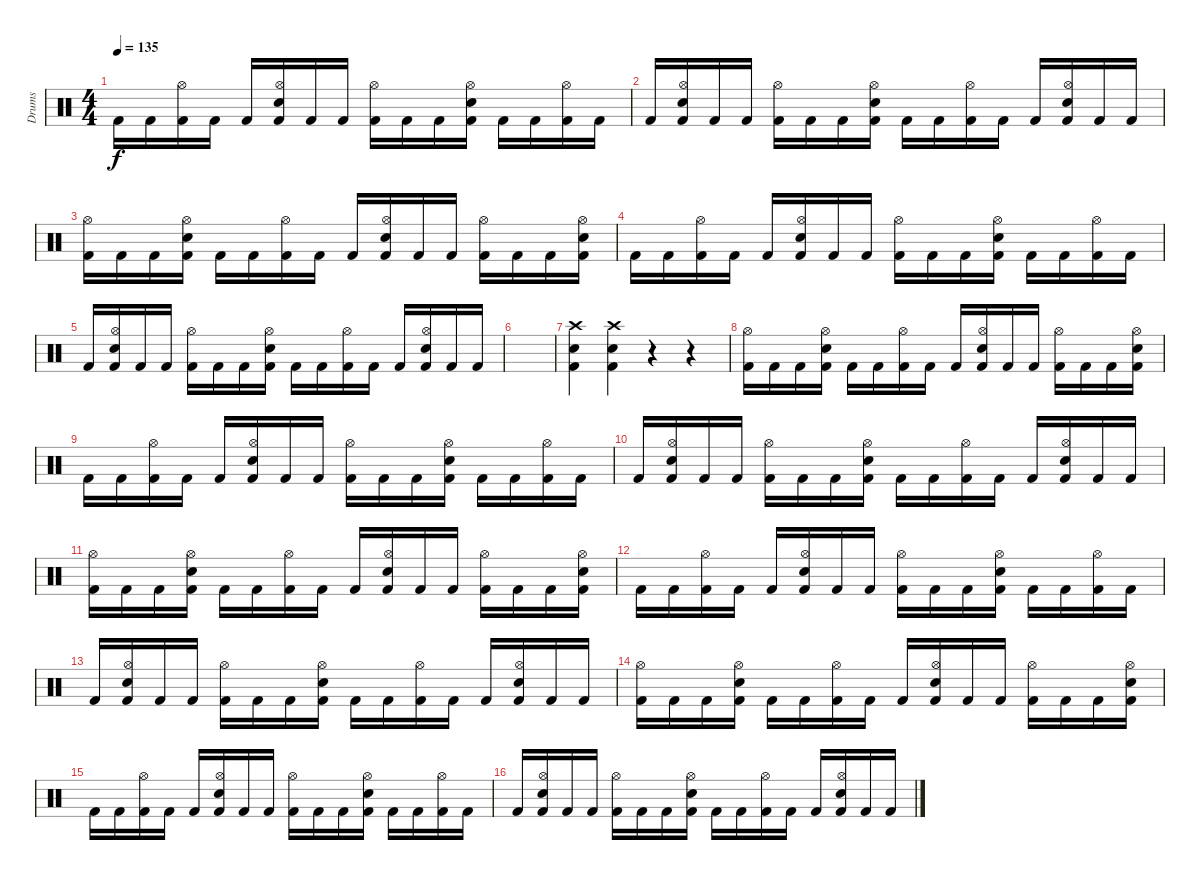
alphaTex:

\track ("Drums" "Drums") {instrument percussion}
\staff {score}
\articulation defaults
\ts (4 4)
\tempo 135
\clef neutral
\ks c "Kick (hit) 2".16{dy f} "Kick (hit) 2".16
("Kick (hit) 2" "Hi-Hat (open)").16 "Kick (hit) 2".16 "Kick (hit) 2".16 ("Kick (hit) 2" "Electric Snare (hit)" "Hi-Hat (open)").16 "Kick (hit) 2".16 "Kick (hit) 2".16 ("Kick (hit) 2" "Hi-Hat (open)").16 "Kick (hit) 2".16 "Kick (hit) 2".16 ("Kick (hit) 2" "Electric Snare (hit)" "Hi-Hat (open)").16 "Kick (hit) 2".16 "Kick (hit) 2".16 ("Kick (hit) 2" "Hi-Hat (open)").16 "Kick (hit) 2".16 |
"Kick (hit) 2".16 ("Kick (hit) 2" "Electric Snare (hit)" "Hi-Hat (open)").16 "Kick (hit) 2".16 "Kick (hit) 2".16 ("Kick (hit) 2" "Hi-Hat (open)").16 "Kick (hit) 2".16 "Kick (hit) 2".16 ("Kick (hit) 2" "Electric Snare (hit)" "Hi-Hat (open)").16 "Kick (hit) 2".16 "Kick (hit) 2".16 ("Kick (hit) 2" "Hi-Hat (open)").16 "Kick (hit) 2".16 "Kick (hit) 2".16 ("Kick (hit) 2" "Electric Snare (hit)" "Hi-Hat (open)").16 "Kick (hit) 2".16 "Kick (hit) 2".16 |
("Kick (hit) 2" "Hi-Hat (open)").16 "Kick (hit) 2".16 "Kick (hit) 2".16 ("Kick (hit) 2" "Electric Snare (hit)" "Hi-Hat (open)").16 "Kick (hit) 2".16 "Kick (hit) 2".16 ("Kick (hit) 2" "Hi-Hat (open)").16 "Kick (hit) 2".16 "Kick (hit) 2".16 ("Kick (hit) 2" "Electric Snare (hit)" "Hi-Hat (open)").16 "Kick (hit) 2".16 "Kick (hit) 2".16 ("Kick (hit) 2" "Hi-Hat (open)").16 "Kick (hit) 2".16 "Kick (hit) 2".16 ("Kick (hit) 2" "Hi-Hat (open)" "Electric Snare (hit)").16 |
"Kick (hit) 2".16 "Kick (hit) 2".16 ("Kick (hit) 2" "Hi-Hat (open)").16 "Kick (hit) 2".16 "Kick (hit) 2".16 ("Kick (hit) 2" "Electric Snare (hit)" "Hi-Hat (open)").16 "Kick (hit) 2".16 "Kick (hit) 2".16 ("Kick (hit) 2" "Hi-Hat (open)").16 "Kick (hit) 2".16 "Kick (hit) 2".16 ("Kick (hit) 2" "Electric Snare (hit)" "Hi-Hat (open)").16 "Kick (hit) 2".16 "Kick (hit) 2".16 ("Kick (hit) 2" "Hi-Hat (open)").16 "Kick (hit) 2".16 |
"Kick (hit) 2".16 ("Kick (hit) 2" "Electric Snare (hit)" "Hi-Hat (open)").16 "Kick (hit) 2".16 "Kick (hit) 2".16 ("Kick (hit) 2" "Hi-Hat (open)").16 "Kick (hit) 2".16 "Kick (hit) 2".16 ("Kick (hit) 2" "Electric Snare (hit)" "Hi-Hat (open)").16 "Kick (hit) 2".16 "Kick (hit) 2".16 ("Kick (hit) 2" "Hi-Hat (open)").16 "Kick (hit) 2".16 "Kick (hit) 2".16 ("Kick (hit) 2" "Electric Snare (hit)" "Hi-Hat (open)").16 "Kick (hit) 2".16 "Kick (hit) 2".16 |
|
("Crash high (hit)" "Electric Snare (hit)" "Kick (hit) 2").4 ("Crash high (hit)" "Electric Snare (hit)" "Kick (hit) 2").4 r.4 r.4 |
("Kick (hit) 2" "Hi-Hat (open)").16 "Kick (hit) 2".16 "Kick (hit) 2".16 ("Kick (hit) 2" "Electric Snare (hit)" "Hi-Hat (open)").16 "Kick (hit) 2".16 "Kick (hit) 2".16 ("Kick (hit) 2" "Hi-Hat (open)").16 "Kick (hit) 2".16 "Kick (hit) 2".16 ("Kick (hit) 2" "Electric Snare (hit)" "Hi-Hat (open)").16 "Kick (hit) 2".16 "Kick (hit) 2".16 ("Kick (hit) 2" "Hi-Hat (open)").16 "Kick (hit) 2".16 "Kick (hit) 2".16 ("Kick (hit) 2" "Electric Snare (hit)" "Hi-Hat (open)").16 |
"Kick (hit) 2".16 "Kick (hit) 2".16 ("Kick (hit) 2" "Hi-Hat (open)").16 "Kick (hit) 2".16 "Kick (hit) 2".16 ("Kick (hit) 2" "Electric Snare (hit)" "Hi-Hat (open)").16 "Kick (hit) 2".16 "Kick (hit) 2".16 ("Kick (hit) 2" "Hi-Hat (open)").16 "Kick (hit) 2".16 "Kick (hit) 2".16 ("Kick (hit) 2" "Electric Snare (hit)" "Hi-Hat (open)").16 "Kick (hit) 2".16 "Kick (hit) 2".16 ("Kick (hit) 2" "Hi-Hat (open)").16 "Kick (hit) 2".16 |
"Kick (hit) 2".16 ("Kick (hit) 2" "Electric Snare (hit)" "Hi-Hat (open)").16 "Kick (hit) 2".16 "Kick (hit) 2".16 ("Kick (hit) 2" "Hi-Hat (open)").16 "Kick (hit) 2".16 "Kick (hit) 2".16 ("Kick (hit) 2" "Electric Snare (hit)" "Hi-Hat (open)").16 "Kick (hit) 2".16 "Kick (hit) 2".16 ("Kick (hit) 2" "Hi-Hat (open)").16 "Kick (hit) 2".16 "Kick (hit) 2".16 ("Kick (hit) 2" "Electric Snare (hit)" "Hi-Hat (open)").16 "Kick (hit) 2".16 "Kick (hit) 2".16 |
("Kick (hit) 2" "Hi-Hat (open)").16 "Kick (hit) 2".16 "Kick (hit) 2".16 ("Kick (hit) 2" "Electric Snare (hit)" "Hi-Hat (open)").16 "Kick (hit) 2".16 "Kick (hit) 2".16 ("Kick (hit) 2" "Hi-Hat (open)").16 "Kick (hit) 2".16 "Kick (hit) 2".16 ("Kick (hit) 2" "Electric Snare (hit)" "Hi-Hat (open)").16 "Kick (hit) 2".16 "Kick (hit) 2".16 ("Kick (hit) 2" "Hi-Hat (open)").16 "Kick (hit) 2".16 "Kick (hit) 2".16 ("Kick (hit) 2" "Hi-Hat (open)" "Electric Snare (hit)").16 |
"Kick (hit) 2".16 "Kick (hit) 2".16 ("Kick (hit) 2" "Hi-Hat (open)").16 "Kick (hit) 2".16 "Kick (hit) 2".16 ("Kick (hit) 2" "Electric Snare (hit)" "Hi-Hat (open)").16 "Kick (hit) 2".16 "Kick (hit) 2".16 ("Kick (hit) 2" "Hi-Hat (open)").16 "Kick (hit) 2".16 "Kick (hit) 2".16 ("Kick (hit) 2" "Electric Snare (hit)" "Hi-Hat (open)").16 "Kick (hit) 2".16 "Kick (hit) 2".16 ("Kick (hit) 2" "Hi-Hat (open)").16 "Kick (hit) 2".16 |
"Kick (hit) 2".16 ("Kick (hit) 2" "Electric Snare (hit)" "Hi-Hat (open)").16 "Kick (hit) 2".16 "Kick (hit) 2".16 ("Kick (hit) 2" "Hi-Hat (open)").16 "Kick (hit) 2".16 "Kick (hit) 2".16 ("Kick (hit) 2" "Electric Snare (hit)" "Hi-Hat (open)").16 "Kick (hit) 2".16 "Kick (hit) 2".16 ("Kick (hit) 2" "Hi-Hat (open)").16 "Kick (hit) 2".16 "Kick (hit) 2".16 ("Kick (hit) 2" "Electric Snare (hit)" "Hi-Hat (open)").16 "Kick (hit) 2".16 "Kick (hit) 2".16 |
("Kick (hit) 2" "Hi-Hat (open)").16 "Kick (hit) 2".16 "Kick (hit) 2".16 ("Kick (hit) 2" "Electric Snare (hit)" "Hi-Hat (open)").16 "Kick (hit) 2".16 "Kick (hit) 2".16 ("Kick (hit) 2" "Hi-Hat (open)").16 "Kick (hit) 2".16 "Kick (hit) 2".16 ("Kick (hit) 2" "Electric Snare (hit)" "Hi-Hat (open)").16 "Kick (hit) 2".16 "Kick (hit) 2".16 ("Kick (hit) 2" "Hi-Hat (open)").16 "Kick (hit) 2".16 "Kick (hit) 2".16 ("Kick (hit) 2" "Electric Snare (hit)" "Hi-Hat (open)").16 |
"Kick (hit) 2".16 "Kick (hit) 2".16 ("Kick (hit) 2" "Hi-Hat (open)").16 "Kick (hit) 2".16 "Kick (hit) 2".16 ("Kick (hit) 2" "Electric Snare (hit)" "Hi-Hat (open)").16 "Kick (hit) 2".16 "Kick (hit) 2".16 ("Kick (hit) 2" "Hi-Hat (open)").16 "Kick (hit) 2".16 "Kick (hit) 2".16 ("Kick (hit) 2" "Electric Snare (hit)" "Hi-Hat (open)").16 "Kick (hit) 2".16 "Kick (hit) 2".16 ("Kick (hit) 2" "Hi-Hat (open)").16 "Kick (hit) 2".16 |
"Kick (hit) 2".16 ("Kick (hit) 2" "Electric Snare (hit)" "Hi-Hat (open)").16 "Kick (hit) 2".16 "Kick (hit) 2".16 ("Kick (hit) 2" "Hi-Hat (open)").16 "Kick (hit) 2".16 "Kick (hit) 2".16 ("Kick (hit) 2" "Electric Snare (hit)" "Hi-Hat (open)").16 "Kick (hit) 2".16 "Kick (hit) 2".16 ("Kick (hit) 2" "Hi-Hat (open)").16 "Kick (hit) 2".16 "Kick (hit) 2".16 ("Kick (hit) 2" "Electric Snare (hit)" "Hi-Hat (open)").16 "Kick (hit) 2".16 "Kick (hit) 2".16
